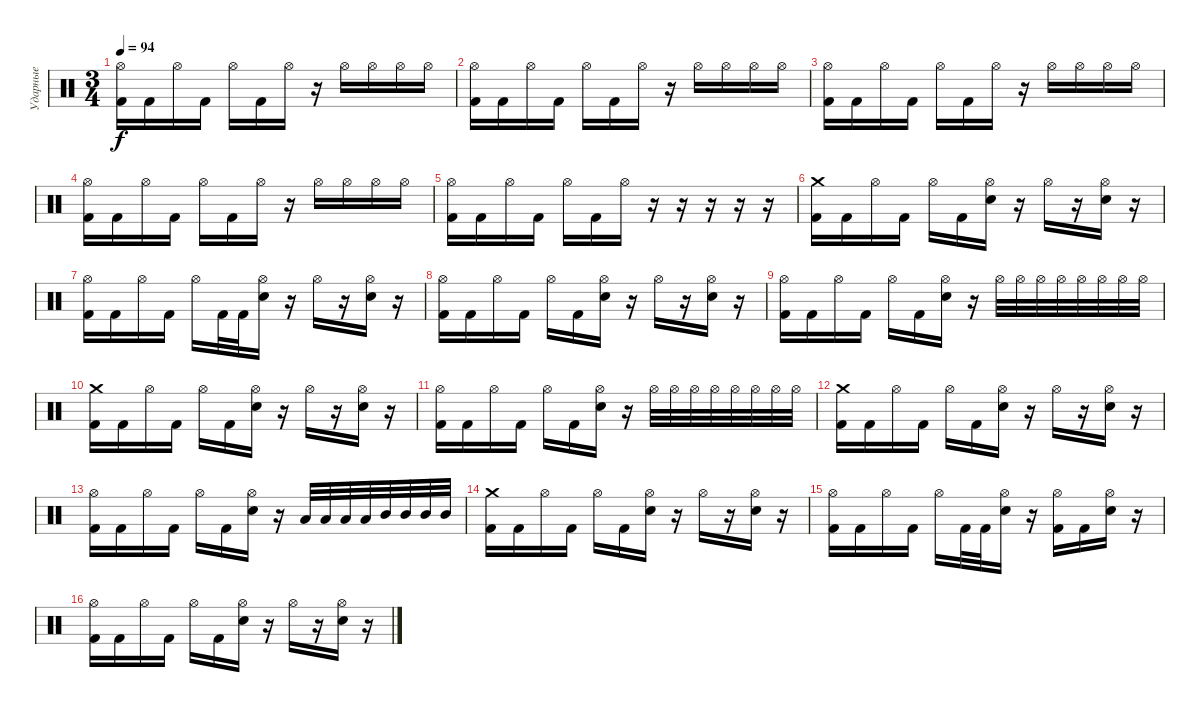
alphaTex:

\track ("Ударные" "Ударные") {instrument percussion}
\staff {score}
\articulation defaults
\ts (3 4)
\tempo 94
\clef neutral
\ks c
("Hi-Hat (open)" "Kick (hit) 2").16{dy f} "Kick (hit) 2".16 "Hi-Hat (open)".16 "Kick (hit) 2".16 "Hi-Hat (open)".16 "Kick (hit) 2".16 "Hi-Hat (open)".16 r.16 "Hi-Hat (open)".16 "Hi-Hat (open)".16 "Hi-Hat (open)".16 "Hi-Hat (open)".16 |
("Hi-Hat (open)" "Kick (hit) 2").16 "Kick (hit) 2".16 "Hi-Hat (open)".16 "Kick (hit) 2".16 "Hi-Hat (open)".16 "Kick (hit) 2".16 "Hi-Hat (open)".16 r.16 "Hi-Hat (open)".16 "Hi-Hat (open)".16 "Hi-Hat (open)".16 "Hi-Hat (open)".16 |
("Hi-Hat (open)" "Kick (hit) 2").16 "Kick (hit) 2".16 "Hi-Hat (open)".16 "Kick (hit) 2".16 "Hi-Hat (open)".16 "Kick (hit) 2".16 "Hi-Hat (open)".16 r.16 "Hi-Hat (open)".16 "Hi-Hat (open)".16 "Hi-Hat (open)".16 "Hi-Hat (open)".16 |
("Hi-Hat (open)" "Kick (hit) 2").16 "Kick (hit) 2".16 "Hi-Hat (open)".16 "Kick (hit) 2".16 "Hi-Hat (open)".16 "Kick (hit) 2".16 "Hi-Hat (open)".16 r.16 "Hi-Hat (open)".16 "Hi-Hat (open)".16 "Hi-Hat (open)".16 "Hi-Hat (open)".16 |
("Hi-Hat (open)" "Kick (hit) 2").16 "Kick (hit) 2".16 "Hi-Hat (open)".16 "Kick (hit) 2".16 "Hi-Hat (open)".16 "Kick (hit) 2".16 "Hi-Hat (open)".16 r.16 r.16 r.16 r.16 r.16 |
("Crash medium (hit)" "Kick (hit) 2").16 "Kick (hit) 2".16 "Hi-Hat (open)".16 "Kick (hit) 2".16 "Hi-Hat (open)".16 "Kick (hit) 2".16 ("Hi-Hat (open)" "Electric Snare (hit)").16 r.16 "Hi-Hat (open)".16 r.16 ("Hi-Hat (open)" "Electric Snare (hit)").16 r.16 |
("Hi-Hat (open)" "Kick (hit) 2").16 "Kick (hit) 2".16 "Hi-Hat (open)".16 "Kick (hit) 2".16 "Hi-Hat (open)".16 "Kick (hit) 2".32 "Kick (hit) 2".32 ("Hi-Hat (open)" "Electric Snare (hit)").16 r.16 "Hi-Hat (open)".16 r.16 ("Hi-Hat (open)" "Electric Snare (hit)").16 r.16 |
("Hi-Hat (open)" "Kick (hit) 2").16 "Kick (hit) 2".16 "Hi-Hat (open)".16 "Kick (hit) 2".16 "Hi-Hat (open)".16 "Kick (hit) 2".16 ("Hi-Hat (open)" "Electric Snare (hit)").16 r.16 "Hi-Hat (open)".16 r.16 ("Hi-Hat (open)" "Electric Snare (hit)").16 r.16 |
("Hi-Hat (open)" "Kick (hit) 2").16 "Kick (hit) 2".16 "Hi-Hat (open)".16 "Kick (hit) 2".16 "Hi-Hat (open)".16 "Kick (hit) 2".16 ("Hi-Hat (open)" "Electric Snare (hit)").16 r.16 "Hi-Hat (open)".32 "Hi-Hat (open)".32 "Hi-Hat (open)".32 "Hi-Hat (open)".32 "Hi-Hat (open)".32 "Hi-Hat (open)".32 "Hi-Hat (open)".32 "Hi-Hat (open)".32 |
("Crash medium (hit)" "Kick (hit) 2").16 "Kick (hit) 2".16 "Hi-Hat (open)".16 "Kick (hit) 2".16 "Hi-Hat (open)".16 "Kick (hit) 2".16 ("Hi-Hat (open)" "Electric Snare (hit)").16 r.16 "Hi-Hat (open)".16 r.16 ("Hi-Hat (open)" "Electric Snare (hit)").16 r.16 |
("Hi-Hat (open)" "Kick (hit) 2").16 "Kick (hit) 2".16 "Hi-Hat (open)".16 "Kick (hit) 2".16 "Hi-Hat (open)".16 "Kick (hit) 2".16 ("Hi-Hat (open)" "Electric Snare (hit)").16 r.16 "Hi-Hat (open)".32 "Hi-Hat (open)".32 "Hi-Hat (open)".32 "Hi-Hat (open)".32 "Hi-Hat (open)".32 "Hi-Hat (open)".32 "Hi-Hat (open)".32 "Hi-Hat (open)".32 |
("Crash medium (hit)" "Kick (hit) 2").16 "Kick (hit) 2".16 "Hi-Hat (open)".16 "Kick (hit) 2".16 "Hi-Hat (open)".16 "Kick (hit) 2".16 ("Hi-Hat (open)" "Electric Snare (hit)").16 r.16 "Hi-Hat (open)".16 r.16 ("Hi-Hat (open)" "Electric Snare (hit)").16 r.16 |
("Hi-Hat (open)" "Kick (hit) 2").16 "Kick (hit) 2".16 "Hi-Hat (open)".16 "Kick (hit) 2".16 "Hi-Hat (open)".16 "Kick (hit) 2".16 ("Hi-Hat (open)" "Electric Snare (hit)").16 r.16 "Low Tom (hit)".32 "Low Tom (hit)".32 "Low Tom (hit)".32 "Low Tom (hit)".32 "Mid Tom (hit)".32 "Mid Tom (hit)".32 "Mid Tom (hit)".32 "Mid Tom (hit)".32 |
("Crash medium (hit)" "Kick (hit) 2").16 "Kick (hit) 2".16 "Hi-Hat (open)".16 "Kick (hit) 2".16 "Hi-Hat (open)".16 "Kick (hit) 2".16 ("Hi-Hat (open)" "Electric Snare (hit)").16 r.16 "Hi-Hat (open)".16 r.16 ("Hi-Hat (open)" "Electric Snare (hit)").16 r.16 |
("Hi-Hat (open)" "Kick (hit) 2").16 "Kick (hit) 2".16 "Hi-Hat (open)".16 "Kick (hit) 2".16 "Hi-Hat (open)".16 "Kick (hit) 2".32 "Kick (hit) 2".32 ("Hi-Hat (open)" "Electric Snare (hit)").16 r.16 ("Hi-Hat (open)" "Kick (hit) 2").16 "Kick (hit) 2".16 ("Hi-Hat (open)" "Electric Snare (hit)").16 r.16 |
("Hi-Hat (open)" "Kick (hit) 2").16 "Kick (hit) 2".16 "Hi-Hat (open)".16 "Kick (hit) 2".16 "Hi-Hat (open)".16 "Kick (hit) 2".16 ("Hi-Hat (open)" "Electric Snare (hit)").16 r.16 "Hi-Hat (open)".16 r.16 ("Hi-Hat (open)" "Electric Snare (hit)").16 r.16
